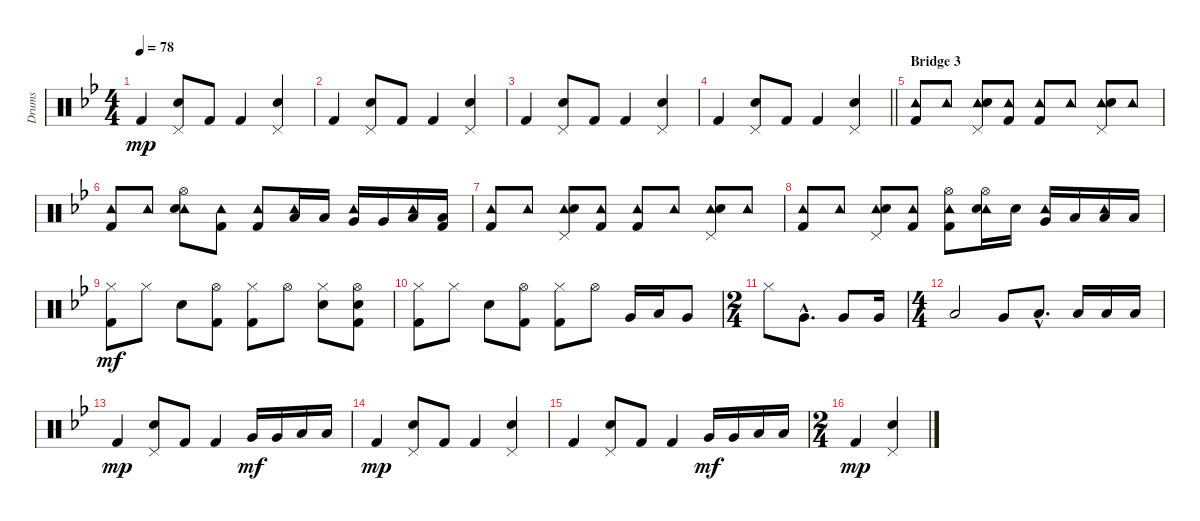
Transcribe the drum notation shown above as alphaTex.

\track ("Drums" "Drums") {instrument percussion}
\staff {score}
\articulation defaults
\ts (4 4)
\tempo 78
\clef neutral
\ks bb "Kick (hit) 2".4{dy mp}
("Pedal Hi-Hat (hit)" "Snare (hit) 2").8 "Kick (hit) 2".8 "Kick (hit) 2".4 ("Pedal Hi-Hat (hit)" "Snare (hit) 2").4 |
"Kick (hit) 2".4 ("Pedal Hi-Hat (hit)" "Snare (hit) 2").8 "Kick (hit) 2".8 "Kick (hit) 2".4 ("Pedal Hi-Hat (hit)" "Snare (hit) 2").4 |
"Kick (hit) 2".4 ("Pedal Hi-Hat (hit)" "Snare (hit) 2").8 "Kick (hit) 2".8 "Kick (hit) 2".4 ("Pedal Hi-Hat (hit)" "Snare (hit) 2").4 |
\barLineRight lightlight "Kick (hit) 2".4
("Pedal Hi-Hat (hit)" "Snare (hit) 2").8 "Kick (hit) 2".8 "Kick (hit) 2".4 ("Pedal Hi-Hat (hit)" "Snare (hit) 2").4 |
\section ("" "Bridge 3")
("Tambourine (hit)" "Kick (hit) 2").8 "Tambourine (hit)".8 ("Tambourine (hit)" "Pedal Hi-Hat (hit)" "Snare (hit) 2").8 ("Tambourine (hit)" "Kick (hit) 2").8 ("Tambourine (hit)" "Kick (hit) 2").8 "Tambourine (hit)".8 ("Tambourine (hit)" "Pedal Hi-Hat (hit)" "Snare (hit) 2").8 "Tambourine (hit)".8 |
("Tambourine (hit)" "Kick (hit) 2").8 "Tambourine (hit)".8 ("Tambourine (hit)" "Hi-Hat (open)" "Snare (hit) 2").8 ("Tambourine (hit)" "Kick (hit) 2").8 ("Tambourine (hit)" "Kick (hit) 2").8 ("Tambourine (hit)" "Low Tom (hit)").16 "Low Tom (hit)".16 ("Tambourine (hit)" "Very Low Tom (hit)").16 "Very Low Tom (hit)".16 ("Tambourine (hit)" "Low Floor Tom (hit)").16 ("Low Floor Tom (hit)" "Kick (hit) 2").16 |
("Tambourine (hit)" "Kick (hit) 2").8 "Tambourine (hit)".8 ("Tambourine (hit)" "Pedal Hi-Hat (hit)" "Snare (hit) 2").8 ("Tambourine (hit)" "Kick (hit) 2").8 ("Tambourine (hit)" "Kick (hit) 2").8 "Tambourine (hit)".8 ("Tambourine (hit)" "Pedal Hi-Hat (hit)" "Snare (hit) 2").8 "Tambourine (hit)".8 |
("Tambourine (hit)" "Kick (hit) 2").8 "Tambourine (hit)".8 ("Tambourine (hit)" "Pedal Hi-Hat (hit)" "Snare (hit) 2").8 ("Tambourine (hit)" "Kick (hit) 2").8 ("Tambourine (hit)" "Hi-Hat (open)" "Kick (hit) 2").8 ("Tambourine (hit)" "Hi-Hat (open)" "Snare (hit) 2").16 "Snare (hit) 2".16 ("Tambourine (hit)" "Very Low Tom (hit)").16 "Low Floor Tom (hit)".16 ("Tambourine (hit)" "Low Floor Tom (hit)").16 "Low Floor Tom (hit)".16 |
("Hi-Hat (closed)" "Kick (hit) 2").8{dy mf} "Hi-Hat (closed)".8 "Snare (hit) 2".8 ("Hi-Hat (open)" "Kick (hit) 2").8 ("Hi-Hat (closed)" "Kick (hit) 2").8 "Hi-Hat (open)".8 ("Hi-Hat (closed)" "Snare (hit) 2").8 ("Hi-Hat (open)" "Snare (hit) 2" "Kick (hit) 2").8 |
("Hi-Hat (closed)" "Kick (hit) 2").8 "Hi-Hat (closed)".8 "Snare (hit) 2".8 ("Hi-Hat (open)" "Kick (hit) 2").8 ("Hi-Hat (closed)" "Kick (hit) 2").8 "Hi-Hat (open)".8 "Very Low Tom (hit)".16 "Low Floor Tom (hit)".16 "Very Low Tom (hit)".8 |
\ts (2 4)
"Hi-Hat (closed)".8 "Very Low Tom (hit)"{hac}.8{d} "Very Low Tom (hit)".8 "Very Low Tom (hit)".16 |
\ts (4 4)
"Low Floor Tom (hit)".2 "Very Low Tom (hit)".8 "Low Floor Tom (hit)"{hac}.8{d} "Low Floor Tom (hit)".16 "Low Floor Tom (hit)".16 "Low Floor Tom (hit)".16 |
"Kick (hit) 2".4{dy mp} ("Pedal Hi-Hat (hit)" "Snare (hit) 2").8 "Kick (hit) 2".8 "Kick (hit) 2".4 "Very Low Tom (hit)".16{dy mf} "Very Low Tom (hit)".16 "Low Floor Tom (hit)".16 "Low Floor Tom (hit)".16 |
"Kick (hit) 2".4{dy mp} ("Pedal Hi-Hat (hit)" "Snare (hit) 2").8 "Kick (hit) 2".8 "Kick (hit) 2".4 ("Pedal Hi-Hat (hit)" "Snare (hit) 2").4 |
"Kick (hit) 2".4 ("Pedal Hi-Hat (hit)" "Snare (hit) 2").8 "Kick (hit) 2".8 "Kick (hit) 2".4 "Very Low Tom (hit)".16{dy mf} "Very Low Tom (hit)".16 "Low Floor Tom (hit)".16 "Low Floor Tom (hit)".16 |
\ts (2 4)
"Kick (hit) 2".4{dy mp} ("Pedal Hi-Hat (hit)" "Snare (hit) 2").4
